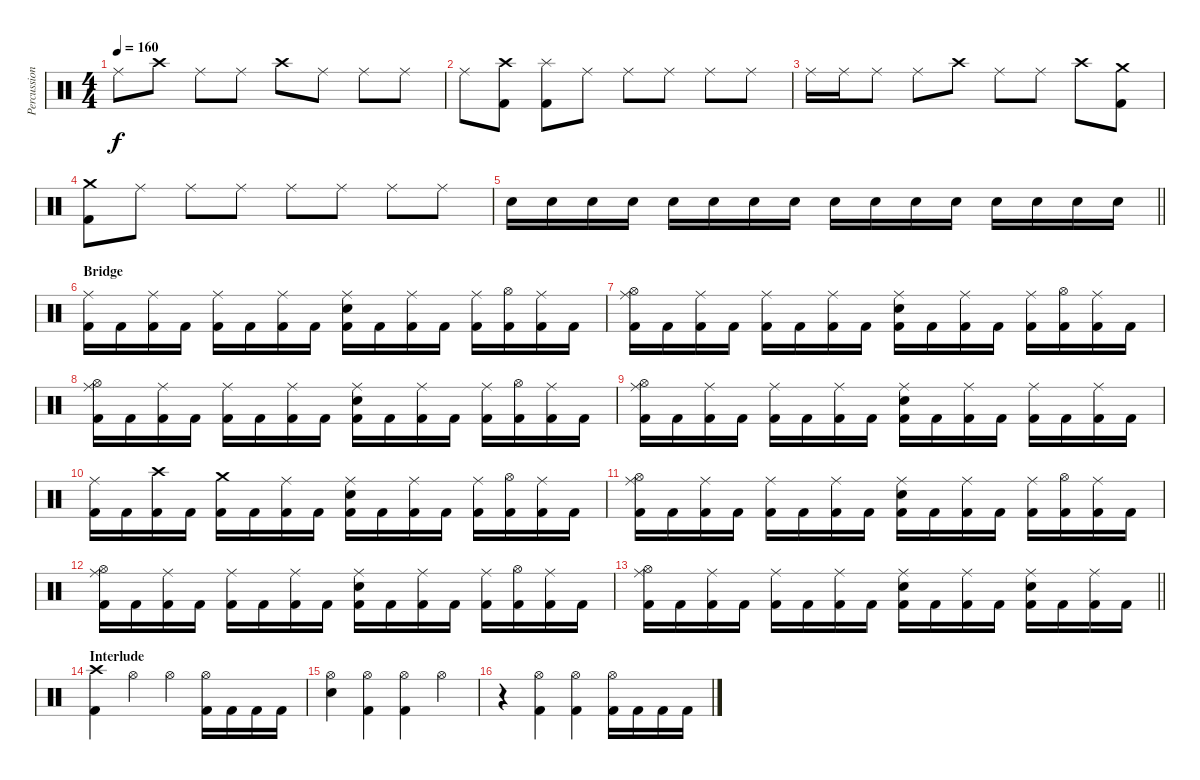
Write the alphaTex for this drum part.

\track ("Percussion" "Percussion") {instrument percussion}
\staff {score}
\articulation defaults
\ts (4 4)
\tempo 160
\clef neutral
\ks c "Ride (middle)".8{dy f} "Crash high (hit)".8 "Ride (middle)".8 "Ride (middle)".8 "Crash high (hit)".8 "Ride (middle)".8 "Ride (middle)".8 "Ride (middle)".8
|
"Ride (middle)".8 ("Crash high (hit)" "Kick (hit) 2").8 ("Splash (hit)" "Kick (hit) 2").8 "Ride (middle)".8 "Ride (middle)".8 "Ride (middle)".8 "Ride (middle)".8 "Ride (middle)".8 |
"Ride (middle)".16 "Ride (middle)".16 "Ride (middle)".8 "Ride (middle)".8 "Crash high (hit)".8 "Ride (middle)".8 "Ride (middle)".8 "Crash high (hit)".8 ("Crash medium (hit)" "Kick (hit) 2").8 |
("Crash medium (hit)" "Kick (hit) 2").8 "Ride (middle)".8 "Ride (middle)".8 "Ride (middle)".8 "Ride (middle)".8 "Ride (middle)".8 "Ride (middle)".8 "Ride (middle)".8 |
\barLineRight lightlight "Snare (hit) 2".16 "Snare (hit) 2".16 "Snare (hit) 2".16 "Snare (hit) 2".16 "Snare (hit) 2".16 "Snare (hit) 2".16 "Snare (hit) 2".16 "Snare (hit) 2".16 "Snare (hit) 2".16 "Snare (hit) 2".16 "Snare (hit) 2".16 "Snare (hit) 2".16 "Snare (hit) 2".16 "Snare (hit) 2".16 "Snare (hit) 2".16 "Snare (hit) 2".16
|
\section ("" "Bridge")
("Ride (middle)" "Kick (hit) 2").16 "Kick (hit) 2".16 ("Ride (middle)" "Kick (hit) 2").16 "Kick (hit) 2".16 ("Ride (middle)" "Kick (hit) 2").16 "Kick (hit) 2".16 ("Ride (middle)" "Kick (hit) 2").16 "Kick (hit) 2".16 ("Ride (middle)" "Snare (hit) 2" "Kick (hit) 2").16 "Kick (hit) 2".16 ("Ride (middle)" "Kick (hit) 2").16 "Kick (hit) 2".16 ("Ride (middle)" "Kick (hit) 2").16 ("Hi-Hat (open)" "Kick (hit) 2").16 ("Ride (middle)" "Kick (hit) 2").16 "Kick (hit) 2".16 |
("Ride (middle)" "Hi-Hat (open)" "Kick (hit) 2").16 "Kick (hit) 2".16 ("Ride (middle)" "Kick (hit) 2").16 "Kick (hit) 2".16 ("Ride (middle)" "Kick (hit) 2").16 "Kick (hit) 2".16 ("Ride (middle)" "Kick (hit) 2").16 "Kick (hit) 2".16 ("Ride (middle)" "Snare (hit) 2" "Kick (hit) 2").16 "Kick (hit) 2".16 ("Ride (middle)" "Kick (hit) 2").16 "Kick (hit) 2".16 ("Ride (middle)" "Kick (hit) 2").16 ("Hi-Hat (open)" "Kick (hit) 2").16 ("Ride (middle)" "Kick (hit) 2").16 "Kick (hit) 2".16 |
("Ride (middle)" "Hi-Hat (open)" "Kick (hit) 2").16 "Kick (hit) 2".16 ("Ride (middle)" "Kick (hit) 2").16 "Kick (hit) 2".16 ("Ride (middle)" "Kick (hit) 2").16 "Kick (hit) 2".16 ("Ride (middle)" "Kick (hit) 2").16 "Kick (hit) 2".16 ("Ride (middle)" "Snare (hit) 2" "Kick (hit) 2").16 "Kick (hit) 2".16 ("Ride (middle)" "Kick (hit) 2").16 "Kick (hit) 2".16 ("Ride (middle)" "Kick (hit) 2").16 ("Hi-Hat (open)" "Kick (hit) 2").16 ("Ride (middle)" "Kick (hit) 2").16 "Kick (hit) 2".16 |
("Ride (middle)" "Hi-Hat (open)" "Kick (hit) 2").16 "Kick (hit) 2".16 ("Ride (middle)" "Kick (hit) 2").16 "Kick (hit) 2".16 ("Ride (middle)" "Kick (hit) 2").16 "Kick (hit) 2".16 ("Ride (middle)" "Kick (hit) 2").16 "Kick (hit) 2".16 ("Ride (middle)" "Snare (hit) 2" "Kick (hit) 2").16 "Kick (hit) 2".16 ("Ride (middle)" "Kick (hit) 2").16 "Kick (hit) 2".16 ("Ride (middle)" "Kick (hit) 2").16 "Kick (hit) 2".16 ("Ride (middle)" "Kick (hit) 2").16 "Kick (hit) 2".16 |
("Ride (middle)" "Kick (hit) 2").16 "Kick (hit) 2".16 ("Crash high (hit)" "Kick (hit) 2").16 "Kick (hit) 2".16 ("Crash medium (hit)" "Kick (hit) 2").16 "Kick (hit) 2".16 ("Ride (middle)" "Kick (hit) 2").16 "Kick (hit) 2".16 ("Ride (middle)" "Snare (hit) 2" "Kick (hit) 2").16 "Kick (hit) 2".16 ("Ride (middle)" "Kick (hit) 2").16 "Kick (hit) 2".16 ("Ride (middle)" "Kick (hit) 2").16 ("Hi-Hat (open)" "Kick (hit) 2").16 ("Ride (middle)" "Kick (hit) 2").16 "Kick (hit) 2".16 |
("Ride (middle)" "Hi-Hat (open)" "Kick (hit) 2").16 "Kick (hit) 2".16 ("Ride (middle)" "Kick (hit) 2").16 "Kick (hit) 2".16 ("Ride (middle)" "Kick (hit) 2").16 "Kick (hit) 2".16 ("Ride (middle)" "Kick (hit) 2").16 "Kick (hit) 2".16 ("Ride (middle)" "Snare (hit) 2" "Kick (hit) 2").16 "Kick (hit) 2".16 ("Ride (middle)" "Kick (hit) 2").16 "Kick (hit) 2".16 ("Ride (middle)" "Kick (hit) 2").16 ("Hi-Hat (open)" "Kick (hit) 2").16 ("Ride (middle)" "Kick (hit) 2").16 "Kick (hit) 2".16 |
("Ride (middle)" "Hi-Hat (open)" "Kick (hit) 2").16 "Kick (hit) 2".16 ("Ride (middle)" "Kick (hit) 2").16 "Kick (hit) 2".16 ("Ride (middle)" "Kick (hit) 2").16 "Kick (hit) 2".16 ("Ride (middle)" "Kick (hit) 2").16 "Kick (hit) 2".16 ("Ride (middle)" "Snare (hit) 2" "Kick (hit) 2").16 "Kick (hit) 2".16 ("Ride (middle)" "Kick (hit) 2").16 "Kick (hit) 2".16 ("Ride (middle)" "Kick (hit) 2").16 ("Hi-Hat (open)" "Kick (hit) 2").16 ("Ride (middle)" "Kick (hit) 2").16 "Kick (hit) 2".16 |
\barLineRight lightlight
("Ride (middle)" "Hi-Hat (open)" "Kick (hit) 2").16 "Kick (hit) 2".16 ("Ride (middle)" "Kick (hit) 2").16 "Kick (hit) 2".16 ("Ride (middle)" "Kick (hit) 2").16 "Kick (hit) 2".16 ("Ride (middle)" "Kick (hit) 2").16 "Kick (hit) 2".16 ("Ride (middle)" "Snare (hit) 2" "Kick (hit) 2").16 "Kick (hit) 2".16 ("Ride (middle)" "Kick (hit) 2").16 "Kick (hit) 2".16 ("Ride (middle)" "Snare (hit) 2" "Kick (hit) 2").16 "Kick (hit) 2".16 ("Ride (middle)" "Kick (hit) 2").16 "Kick (hit) 2".16 |
\section ("" "Interlude")
("Crash high (hit)" "Kick (hit) 2").4 "Hi-Hat (open)".4 "Hi-Hat (open)".4 ("Hi-Hat (open)" "Kick (hit) 2").16 "Kick (hit) 2".16 "Kick (hit) 2".16 "Kick (hit) 2".16 |
("Hi-Hat (open)" "Snare (hit) 2").4 ("Hi-Hat (open)" "Kick (hit) 2").4 ("Hi-Hat (open)" "Kick (hit) 2").4 "Hi-Hat (open)".4 |
r.4 ("Hi-Hat (open)" "Kick (hit) 2").4 ("Hi-Hat (open)" "Kick (hit) 2").4 ("Hi-Hat (open)" "Kick (hit) 2").16 "Kick (hit) 2".16 "Kick (hit) 2".16 "Kick (hit) 2".16
